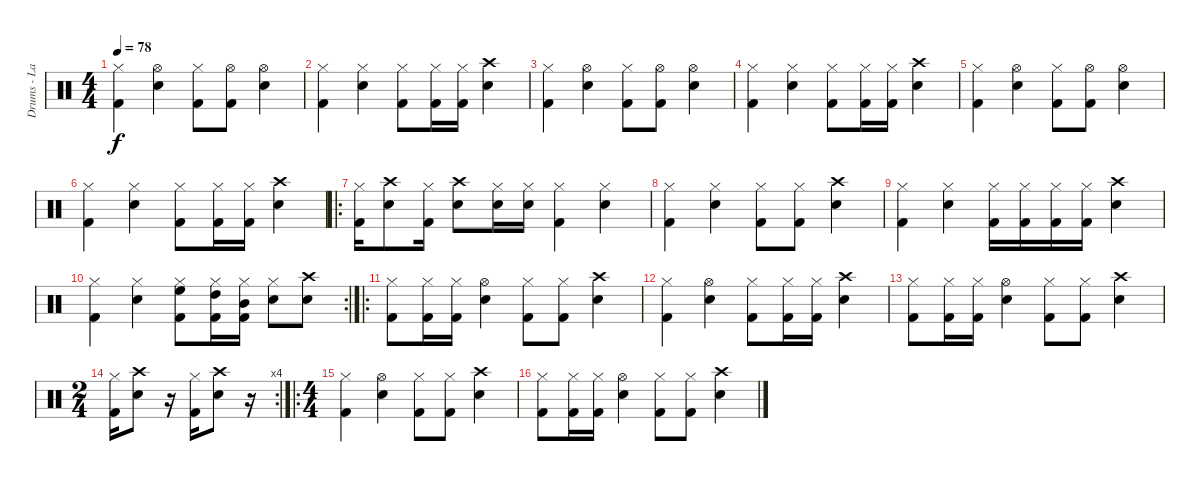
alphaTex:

\track ("Drums - Lars" "Drums - La") {instrument percussion}
\staff {score}
\articulation defaults
\ts (4 4)
\tempo 78
\clef neutral
\ks c
("Hi-Hat (closed)" "Kick (hit) 2").4{dy f} ("Hi-Hat (open)" "Electric Snare (hit)").4 ("Hi-Hat (closed)" "Kick (hit) 2").8 ("Hi-Hat (open)" "Kick (hit) 2").8 ("Hi-Hat (open)" "Electric Snare (hit)").4 |
("Hi-Hat (closed)" "Kick (hit) 2").4 ("Hi-Hat (closed)" "Electric Snare (hit)").4 ("Hi-Hat (closed)" "Kick (hit) 2").8 ("Hi-Hat (closed)" "Kick (hit) 2").16 ("Hi-Hat (closed)" "Kick (hit) 2").16 ("Crash high (hit)" "Electric Snare (hit)").4 |
("Hi-Hat (closed)" "Kick (hit) 2").4 ("Hi-Hat (open)" "Electric Snare (hit)").4 ("Hi-Hat (closed)" "Kick (hit) 2").8 ("Hi-Hat (open)" "Kick (hit) 2").8 ("Hi-Hat (open)" "Electric Snare (hit)").4 |
("Hi-Hat (closed)" "Kick (hit) 2").4 ("Hi-Hat (closed)" "Electric Snare (hit)").4 ("Hi-Hat (closed)" "Kick (hit) 2").8 ("Hi-Hat (closed)" "Kick (hit) 2").16 ("Hi-Hat (closed)" "Kick (hit) 2").16 ("Crash high (hit)" "Electric Snare (hit)").4 |
("Hi-Hat (closed)" "Kick (hit) 2").4 ("Hi-Hat (open)" "Electric Snare (hit)").4 ("Hi-Hat (closed)" "Kick (hit) 2").8 ("Hi-Hat (open)" "Kick (hit) 2").8 ("Hi-Hat (open)" "Electric Snare (hit)").4 |
("Hi-Hat (closed)" "Kick (hit) 2").4 ("Hi-Hat (closed)" "Electric Snare (hit)").4 ("Hi-Hat (closed)" "Kick (hit) 2").8 ("Hi-Hat (closed)" "Kick (hit) 2").16 ("Hi-Hat (closed)" "Kick (hit) 2").16 ("Crash high (hit)" "Electric Snare (hit)").4 |
\ro
("Hi-Hat (closed)" "Kick (hit) 2").16 ("Crash high (hit)" "Electric Snare (hit)").8 ("Hi-Hat (closed)" "Kick (hit) 2").16 ("Crash high (hit)" "Electric Snare (hit)").8 ("Hi-Hat (closed)" "Electric Snare (hit)").16 ("Hi-Hat (closed)" "Electric Snare (hit)").16 ("Hi-Hat (closed)" "Kick (hit) 2").4 ("Hi-Hat (closed)" "Electric Snare (hit)").4 |
("Hi-Hat (closed)" "Kick (hit) 2").4 ("Hi-Hat (closed)" "Electric Snare (hit)").4 ("Hi-Hat (closed)" "Kick (hit) 2").8 ("Hi-Hat (closed)" "Kick (hit) 2").8 ("Crash high (hit)" "Electric Snare (hit)").4 |
("Hi-Hat (closed)" "Kick (hit) 2").4 ("Hi-Hat (closed)" "Electric Snare (hit)").4 ("Hi-Hat (closed)" "Kick (hit) 2").16 ("Hi-Hat (closed)" "Kick (hit) 2").16 ("Hi-Hat (closed)" "Kick (hit) 2").16 ("Hi-Hat (closed)" "Kick (hit) 2").16 ("Crash high (hit)" "Electric Snare (hit)").4 |
\rc 2
("Hi-Hat (closed)" "Kick (hit) 2").4 ("Hi-Hat (closed)" "Electric Snare (hit)").4 ("Hi-Hat (closed)" "High Floor Tom (hit)" "Kick (hit) 2").8 ("Hi-Hat (closed)" "High Tom (hit)" "Kick (hit) 2").16 ("Hi-Hat (closed)" "Mid Tom (hit)" "Kick (hit) 2").16 ("Hi-Hat (closed)" "Electric Snare (hit)").8 ("Crash high (hit)" "Electric Snare (hit)").8 |
\ro
("Hi-Hat (closed)" "Kick (hit) 2").8 ("Hi-Hat (closed)" "Kick (hit) 2").16 ("Hi-Hat (closed)" "Kick (hit) 2").16 ("Hi-Hat (open)" "Electric Snare (hit)").4 ("Hi-Hat (closed)" "Kick (hit) 2").8 ("Hi-Hat (closed)" "Kick (hit) 2").8 ("Crash high (hit)" "Electric Snare (hit)").4 |
("Hi-Hat (closed)" "Kick (hit) 2").4 ("Hi-Hat (open)" "Electric Snare (hit)").4 ("Hi-Hat (closed)" "Kick (hit) 2").8 ("Hi-Hat (closed)" "Kick (hit) 2").16 ("Hi-Hat (closed)" "Kick (hit) 2").16 ("Crash high (hit)" "Electric Snare (hit)").4 |
("Hi-Hat (closed)" "Kick (hit) 2").8 ("Hi-Hat (closed)" "Kick (hit) 2").16 ("Hi-Hat (closed)" "Kick (hit) 2").16 ("Hi-Hat (open)" "Electric Snare (hit)").4 ("Hi-Hat (closed)" "Kick (hit) 2").8 ("Hi-Hat (closed)" "Kick (hit) 2").8 ("Crash high (hit)" "Electric Snare (hit)").4 |
\rc 4
\ts (2 4)
("Hi-Hat (closed)" "Kick (hit) 2").16 ("Crash high (hit)" "Electric Snare (hit)").8 r.16 ("Hi-Hat (closed)" "Kick (hit) 2").16 ("Crash high (hit)" "Electric Snare (hit)").8 r.16 |
\ro
\ts (4 4)
("Hi-Hat (closed)" "Kick (hit) 2").4 ("Hi-Hat (open)" "Electric Snare (hit)").4 ("Hi-Hat (closed)" "Kick (hit) 2").8 ("Hi-Hat (closed)" "Kick (hit) 2").8 ("Crash high (hit)" "Electric Snare (hit)").4 |
("Hi-Hat (closed)" "Kick (hit) 2").8 ("Hi-Hat (closed)" "Kick (hit) 2").16 ("Hi-Hat (closed)" "Kick (hit) 2").16 ("Hi-Hat (open)" "Electric Snare (hit)").4 ("Hi-Hat (closed)" "Kick (hit) 2").8 ("Hi-Hat (closed)" "Kick (hit) 2").8 ("Crash high (hit)" "Electric Snare (hit)").4
